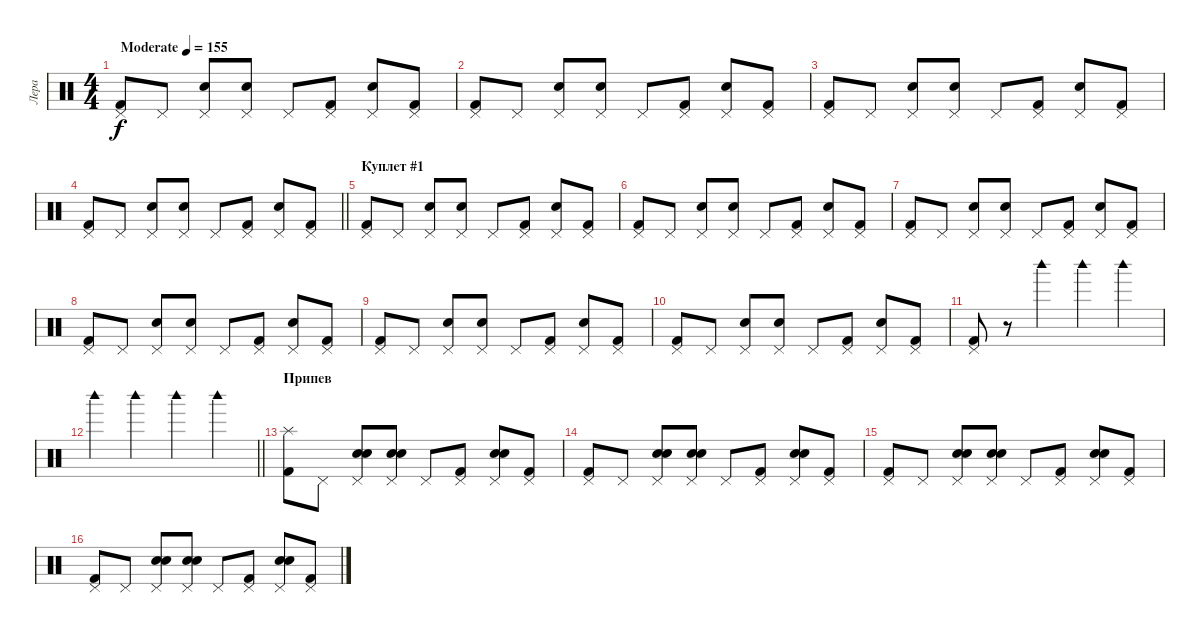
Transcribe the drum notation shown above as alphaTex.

\track ("Лера" "Лера") {instrument percussion}
\staff {score}
\articulation defaults
\ts (4 4)
\tempo (155 "Moderate")
\clef neutral
\ks c
("Pedal Hi-Hat (hit)" "Kick (hit) 2").8{dy f} "Pedal Hi-Hat (hit)".8 ("Pedal Hi-Hat (hit)" "Electric Snare (hit)").8 ("Pedal Hi-Hat (hit)" "Electric Snare (hit)").8 "Pedal Hi-Hat (hit)".8 ("Pedal Hi-Hat (hit)" "Kick (hit) 2").8 ("Pedal Hi-Hat (hit)" "Electric Snare (hit)").8 ("Pedal Hi-Hat (hit)" "Kick (hit) 2").8 |
("Pedal Hi-Hat (hit)" "Kick (hit) 2").8 "Pedal Hi-Hat (hit)".8 ("Pedal Hi-Hat (hit)" "Electric Snare (hit)").8 ("Pedal Hi-Hat (hit)" "Electric Snare (hit)").8 "Pedal Hi-Hat (hit)".8 ("Pedal Hi-Hat (hit)" "Kick (hit) 2").8 ("Pedal Hi-Hat (hit)" "Electric Snare (hit)").8 ("Pedal Hi-Hat (hit)" "Kick (hit) 2").8 |
("Pedal Hi-Hat (hit)" "Kick (hit) 2").8 "Pedal Hi-Hat (hit)".8 ("Pedal Hi-Hat (hit)" "Electric Snare (hit)").8 ("Pedal Hi-Hat (hit)" "Electric Snare (hit)").8 "Pedal Hi-Hat (hit)".8 ("Pedal Hi-Hat (hit)" "Kick (hit) 2").8 ("Pedal Hi-Hat (hit)" "Electric Snare (hit)").8 ("Pedal Hi-Hat (hit)" "Kick (hit) 2").8 |
\barLineRight lightlight
("Pedal Hi-Hat (hit)" "Kick (hit) 2").8 "Pedal Hi-Hat (hit)".8 ("Pedal Hi-Hat (hit)" "Electric Snare (hit)").8 ("Pedal Hi-Hat (hit)" "Electric Snare (hit)").8 "Pedal Hi-Hat (hit)".8 ("Pedal Hi-Hat (hit)" "Kick (hit) 2").8 ("Pedal Hi-Hat (hit)" "Electric Snare (hit)").8 ("Pedal Hi-Hat (hit)" "Kick (hit) 2").8 |
\section ("" "Куплет #1")
("Pedal Hi-Hat (hit)" "Kick (hit) 2").8 "Pedal Hi-Hat (hit)".8 ("Pedal Hi-Hat (hit)" "Electric Snare (hit)").8 ("Pedal Hi-Hat (hit)" "Electric Snare (hit)").8 "Pedal Hi-Hat (hit)".8 ("Pedal Hi-Hat (hit)" "Kick (hit) 2").8 ("Pedal Hi-Hat (hit)" "Electric Snare (hit)").8 ("Pedal Hi-Hat (hit)" "Kick (hit) 2").8 |
("Pedal Hi-Hat (hit)" "Kick (hit) 2").8 "Pedal Hi-Hat (hit)".8 ("Pedal Hi-Hat (hit)" "Electric Snare (hit)").8 ("Pedal Hi-Hat (hit)" "Electric Snare (hit)").8 "Pedal Hi-Hat (hit)".8 ("Pedal Hi-Hat (hit)" "Kick (hit) 2").8 ("Pedal Hi-Hat (hit)" "Electric Snare (hit)").8 ("Pedal Hi-Hat (hit)" "Kick (hit) 2").8 |
("Pedal Hi-Hat (hit)" "Kick (hit) 2").8 "Pedal Hi-Hat (hit)".8 ("Pedal Hi-Hat (hit)" "Electric Snare (hit)").8 ("Pedal Hi-Hat (hit)" "Electric Snare (hit)").8 "Pedal Hi-Hat (hit)".8 ("Pedal Hi-Hat (hit)" "Kick (hit) 2").8 ("Pedal Hi-Hat (hit)" "Electric Snare (hit)").8 ("Pedal Hi-Hat (hit)" "Kick (hit) 2").8 |
("Pedal Hi-Hat (hit)" "Kick (hit) 2").8 "Pedal Hi-Hat (hit)".8 ("Pedal Hi-Hat (hit)" "Electric Snare (hit)").8 ("Pedal Hi-Hat (hit)" "Electric Snare (hit)").8 "Pedal Hi-Hat (hit)".8 ("Pedal Hi-Hat (hit)" "Kick (hit) 2").8 ("Pedal Hi-Hat (hit)" "Electric Snare (hit)").8 ("Pedal Hi-Hat (hit)" "Kick (hit) 2").8 |
("Pedal Hi-Hat (hit)" "Kick (hit) 2").8 "Pedal Hi-Hat (hit)".8 ("Pedal Hi-Hat (hit)" "Electric Snare (hit)").8 ("Pedal Hi-Hat (hit)" "Electric Snare (hit)").8 "Pedal Hi-Hat (hit)".8 ("Pedal Hi-Hat (hit)" "Kick (hit) 2").8 ("Pedal Hi-Hat (hit)" "Electric Snare (hit)").8 ("Pedal Hi-Hat (hit)" "Kick (hit) 2").8 |
("Pedal Hi-Hat (hit)" "Kick (hit) 2").8 "Pedal Hi-Hat (hit)".8 ("Pedal Hi-Hat (hit)" "Electric Snare (hit)").8 ("Pedal Hi-Hat (hit)" "Electric Snare (hit)").8 "Pedal Hi-Hat (hit)".8 ("Pedal Hi-Hat (hit)" "Kick (hit) 2").8 ("Pedal Hi-Hat (hit)" "Electric Snare (hit)").8 ("Pedal Hi-Hat (hit)" "Kick (hit) 2").8 |
("Pedal Hi-Hat (hit)" "Kick (hit) 2").8 r.8 "Woodblock high (hit)".4 "Woodblock high (hit)".4 "Woodblock high (hit)".4 |
\barLineRight lightlight "Woodblock high (hit)".4 "Woodblock high (hit)".4 "Woodblock high (hit)".4 "Woodblock high (hit)".4
|
\section ("" "Припев")
("Splash (hit)" "Kick (hit) 2").8 "Pedal Hi-Hat (hit)".8 ("Pedal Hi-Hat (hit)" "Hand Clap (hit)" "Electric Snare (hit)").8 ("Pedal Hi-Hat (hit)" "Hand Clap (hit)" "Electric Snare (hit)").8 "Pedal Hi-Hat (hit)".8 ("Pedal Hi-Hat (hit)" "Kick (hit) 2").8 ("Pedal Hi-Hat (hit)" "Hand Clap (hit)" "Electric Snare (hit)").8 ("Pedal Hi-Hat (hit)" "Kick (hit) 2").8 |
("Pedal Hi-Hat (hit)" "Kick (hit) 2").8 "Pedal Hi-Hat (hit)".8 ("Pedal Hi-Hat (hit)" "Hand Clap (hit)" "Electric Snare (hit)").8 ("Pedal Hi-Hat (hit)" "Hand Clap (hit)" "Electric Snare (hit)").8 "Pedal Hi-Hat (hit)".8 ("Pedal Hi-Hat (hit)" "Kick (hit) 2").8 ("Pedal Hi-Hat (hit)" "Hand Clap (hit)" "Electric Snare (hit)").8 ("Pedal Hi-Hat (hit)" "Kick (hit) 2").8 |
("Pedal Hi-Hat (hit)" "Kick (hit) 2").8 "Pedal Hi-Hat (hit)".8 ("Pedal Hi-Hat (hit)" "Hand Clap (hit)" "Electric Snare (hit)").8 ("Pedal Hi-Hat (hit)" "Hand Clap (hit)" "Electric Snare (hit)").8 "Pedal Hi-Hat (hit)".8 ("Pedal Hi-Hat (hit)" "Kick (hit) 2").8 ("Pedal Hi-Hat (hit)" "Hand Clap (hit)" "Electric Snare (hit)").8 ("Pedal Hi-Hat (hit)" "Kick (hit) 2").8 |
("Pedal Hi-Hat (hit)" "Kick (hit) 2").8 "Pedal Hi-Hat (hit)".8 ("Pedal Hi-Hat (hit)" "Hand Clap (hit)" "Electric Snare (hit)").8 ("Pedal Hi-Hat (hit)" "Hand Clap (hit)" "Electric Snare (hit)").8 "Pedal Hi-Hat (hit)".8 ("Pedal Hi-Hat (hit)" "Kick (hit) 2").8 ("Pedal Hi-Hat (hit)" "Hand Clap (hit)" "Electric Snare (hit)").8 ("Pedal Hi-Hat (hit)" "Kick (hit) 2").8
